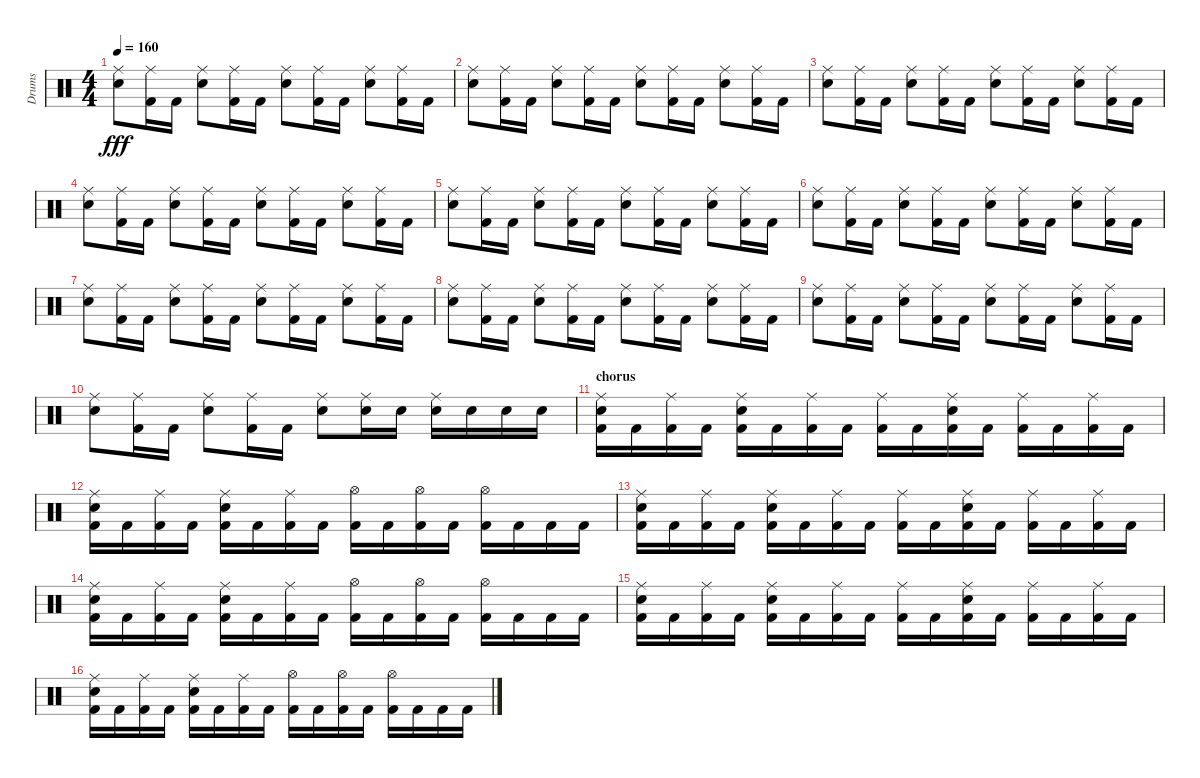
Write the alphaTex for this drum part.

\track ("Drums" "Drums") {instrument percussion}
\staff {score}
\articulation defaults
\ts (4 4)
\tempo 160
\clef neutral
\ks c
("Electric Snare (hit)" "Ride (middle)").8{dy fff} ("Kick (hit) 2" "Ride (middle)").16 "Kick (hit) 2".16 ("Electric Snare (hit)" "Ride (middle)").8 ("Kick (hit) 2" "Ride (middle)").16 "Kick (hit) 2".16 ("Electric Snare (hit)" "Ride (middle)").8 ("Kick (hit) 2" "Ride (middle)").16 "Kick (hit) 2".16 ("Electric Snare (hit)" "Ride (middle)").8 ("Kick (hit) 2" "Ride (middle)").16 "Kick (hit) 2".16 |
("Electric Snare (hit)" "Ride (middle)").8 ("Kick (hit) 2" "Ride (middle)").16 "Kick (hit) 2".16 ("Electric Snare (hit)" "Ride (middle)").8 ("Kick (hit) 2" "Ride (middle)").16 "Kick (hit) 2".16 ("Electric Snare (hit)" "Ride (middle)").8 ("Kick (hit) 2" "Ride (middle)").16 "Kick (hit) 2".16 ("Electric Snare (hit)" "Ride (middle)").8 ("Kick (hit) 2" "Ride (middle)").16 "Kick (hit) 2".16 |
("Electric Snare (hit)" "Ride (middle)").8 ("Kick (hit) 2" "Ride (middle)").16 "Kick (hit) 2".16 ("Electric Snare (hit)" "Ride (middle)").8 ("Kick (hit) 2" "Ride (middle)").16 "Kick (hit) 2".16 ("Electric Snare (hit)" "Ride (middle)").8 ("Kick (hit) 2" "Ride (middle)").16 "Kick (hit) 2".16 ("Electric Snare (hit)" "Ride (middle)").8 ("Kick (hit) 2" "Ride (middle)").16 "Kick (hit) 2".16 |
("Electric Snare (hit)" "Ride (middle)").8 ("Kick (hit) 2" "Ride (middle)").16 "Kick (hit) 2".16 ("Electric Snare (hit)" "Ride (middle)").8 ("Kick (hit) 2" "Ride (middle)").16 "Kick (hit) 2".16 ("Electric Snare (hit)" "Ride (middle)").8 ("Kick (hit) 2" "Ride (middle)").16 "Kick (hit) 2".16 ("Electric Snare (hit)" "Ride (middle)").8 ("Kick (hit) 2" "Ride (middle)").16 "Kick (hit) 2".16 |
("Electric Snare (hit)" "Ride (middle)").8 ("Kick (hit) 2" "Ride (middle)").16 "Kick (hit) 2".16 ("Electric Snare (hit)" "Ride (middle)").8 ("Kick (hit) 2" "Ride (middle)").16 "Kick (hit) 2".16 ("Electric Snare (hit)" "Ride (middle)").8 ("Kick (hit) 2" "Ride (middle)").16 "Kick (hit) 2".16 ("Electric Snare (hit)" "Ride (middle)").8 ("Kick (hit) 2" "Ride (middle)").16 "Kick (hit) 2".16 |
("Electric Snare (hit)" "Ride (middle)").8 ("Kick (hit) 2" "Ride (middle)").16 "Kick (hit) 2".16 ("Electric Snare (hit)" "Ride (middle)").8 ("Kick (hit) 2" "Ride (middle)").16 "Kick (hit) 2".16 ("Electric Snare (hit)" "Ride (middle)").8 ("Kick (hit) 2" "Ride (middle)").16 "Kick (hit) 2".16 ("Electric Snare (hit)" "Ride (middle)").8 ("Kick (hit) 2" "Ride (middle)").16 "Kick (hit) 2".16 |
("Electric Snare (hit)" "Ride (middle)").8 ("Kick (hit) 2" "Ride (middle)").16 "Kick (hit) 2".16 ("Electric Snare (hit)" "Ride (middle)").8 ("Kick (hit) 2" "Ride (middle)").16 "Kick (hit) 2".16 ("Electric Snare (hit)" "Ride (middle)").8 ("Kick (hit) 2" "Ride (middle)").16 "Kick (hit) 2".16 ("Electric Snare (hit)" "Ride (middle)").8 ("Kick (hit) 2" "Ride (middle)").16 "Kick (hit) 2".16 |
("Electric Snare (hit)" "Ride (middle)").8 ("Kick (hit) 2" "Ride (middle)").16 "Kick (hit) 2".16 ("Electric Snare (hit)" "Ride (middle)").8 ("Kick (hit) 2" "Ride (middle)").16 "Kick (hit) 2".16 ("Electric Snare (hit)" "Ride (middle)").8 ("Kick (hit) 2" "Ride (middle)").16 "Kick (hit) 2".16 ("Electric Snare (hit)" "Ride (middle)").8 ("Kick (hit) 2" "Ride (middle)").16 "Kick (hit) 2".16 |
("Electric Snare (hit)" "Ride (middle)").8 ("Kick (hit) 2" "Ride (middle)").16 "Kick (hit) 2".16 ("Electric Snare (hit)" "Ride (middle)").8 ("Kick (hit) 2" "Ride (middle)").16 "Kick (hit) 2".16 ("Electric Snare (hit)" "Ride (middle)").8 ("Kick (hit) 2" "Ride (middle)").16 "Kick (hit) 2".16 ("Electric Snare (hit)" "Ride (middle)").8 ("Kick (hit) 2" "Ride (middle)").16 "Kick (hit) 2".16 |
("Electric Snare (hit)" "Ride (middle)").8 ("Kick (hit) 2" "Ride (middle)").16 "Kick (hit) 2".16 ("Electric Snare (hit)" "Ride (middle)").8 ("Kick (hit) 2" "Ride (middle)").16 "Kick (hit) 2".16 ("Electric Snare (hit)" "Ride (middle)").8 ("Electric Snare (hit)" "Ride (middle)").16 "Electric Snare (hit)".16 ("Electric Snare (hit)" "Ride (middle)").16 "Electric Snare (hit)".16 "Electric Snare (hit)".16 "Electric Snare (hit)".16 |
\section ("" "chorus")
("Kick (hit) 2" "Electric Snare (hit)" "Ride (middle)").16 "Kick (hit) 2".16 ("Kick (hit) 2" "Ride (middle)").16 "Kick (hit) 2".16 ("Kick (hit) 2" "Electric Snare (hit)" "Ride (middle)").16 "Kick (hit) 2".16 ("Kick (hit) 2" "Ride (middle)").16 "Kick (hit) 2".16 ("Kick (hit) 2" "Ride (middle)").16 "Kick (hit) 2".16 ("Kick (hit) 2" "Electric Snare (hit)" "Ride (middle)").16 "Kick (hit) 2".16 ("Kick (hit) 2" "Ride (middle)").16 "Kick (hit) 2".16 ("Kick (hit) 2" "Ride (middle)").16 "Kick (hit) 2".16 |
("Kick (hit) 2" "Electric Snare (hit)" "Ride (middle)").16 "Kick (hit) 2".16 ("Kick (hit) 2" "Ride (middle)").16 "Kick (hit) 2".16 ("Kick (hit) 2" "Electric Snare (hit)" "Ride (middle)").16 "Kick (hit) 2".16 ("Kick (hit) 2" "Ride (middle)").16 "Kick (hit) 2".16 ("Kick (hit) 2" "Hi-Hat (open)").16 "Kick (hit) 2".16 ("Kick (hit) 2" "Hi-Hat (open)").16 "Kick (hit) 2".16 ("Kick (hit) 2" "Hi-Hat (open)").16 "Kick (hit) 2".16 "Kick (hit) 2".16 "Kick (hit) 2".16 |
("Kick (hit) 2" "Electric Snare (hit)" "Ride (middle)").16 "Kick (hit) 2".16 ("Kick (hit) 2" "Ride (middle)").16 "Kick (hit) 2".16 ("Kick (hit) 2" "Electric Snare (hit)" "Ride (middle)").16 "Kick (hit) 2".16 ("Kick (hit) 2" "Ride (middle)").16 "Kick (hit) 2".16 ("Kick (hit) 2" "Ride (middle)").16 "Kick (hit) 2".16 ("Kick (hit) 2" "Electric Snare (hit)" "Ride (middle)").16 "Kick (hit) 2".16 ("Kick (hit) 2" "Ride (middle)").16 "Kick (hit) 2".16 ("Kick (hit) 2" "Ride (middle)").16 "Kick (hit) 2".16 |
("Kick (hit) 2" "Electric Snare (hit)" "Ride (middle)").16 "Kick (hit) 2".16 ("Kick (hit) 2" "Ride (middle)").16 "Kick (hit) 2".16 ("Kick (hit) 2" "Electric Snare (hit)" "Ride (middle)").16 "Kick (hit) 2".16 ("Kick (hit) 2" "Ride (middle)").16 "Kick (hit) 2".16 ("Kick (hit) 2" "Hi-Hat (open)").16 "Kick (hit) 2".16 ("Kick (hit) 2" "Hi-Hat (open)").16 "Kick (hit) 2".16 ("Kick (hit) 2" "Hi-Hat (open)").16 "Kick (hit) 2".16 "Kick (hit) 2".16 "Kick (hit) 2".16 |
("Kick (hit) 2" "Electric Snare (hit)" "Ride (middle)").16 "Kick (hit) 2".16 ("Kick (hit) 2" "Ride (middle)").16 "Kick (hit) 2".16 ("Kick (hit) 2" "Electric Snare (hit)" "Ride (middle)").16 "Kick (hit) 2".16 ("Kick (hit) 2" "Ride (middle)").16 "Kick (hit) 2".16 ("Kick (hit) 2" "Ride (middle)").16 "Kick (hit) 2".16 ("Kick (hit) 2" "Electric Snare (hit)" "Ride (middle)").16 "Kick (hit) 2".16 ("Kick (hit) 2" "Ride (middle)").16 "Kick (hit) 2".16 ("Kick (hit) 2" "Ride (middle)").16 "Kick (hit) 2".16 |
("Kick (hit) 2" "Electric Snare (hit)" "Ride (middle)").16 "Kick (hit) 2".16 ("Kick (hit) 2" "Ride (middle)").16 "Kick (hit) 2".16 ("Kick (hit) 2" "Electric Snare (hit)" "Ride (middle)").16 "Kick (hit) 2".16 ("Kick (hit) 2" "Ride (middle)").16 "Kick (hit) 2".16 ("Kick (hit) 2" "Hi-Hat (open)").16 "Kick (hit) 2".16 ("Kick (hit) 2" "Hi-Hat (open)").16 "Kick (hit) 2".16 ("Kick (hit) 2" "Hi-Hat (open)").16 "Kick (hit) 2".16 "Kick (hit) 2".16 "Kick (hit) 2".16
